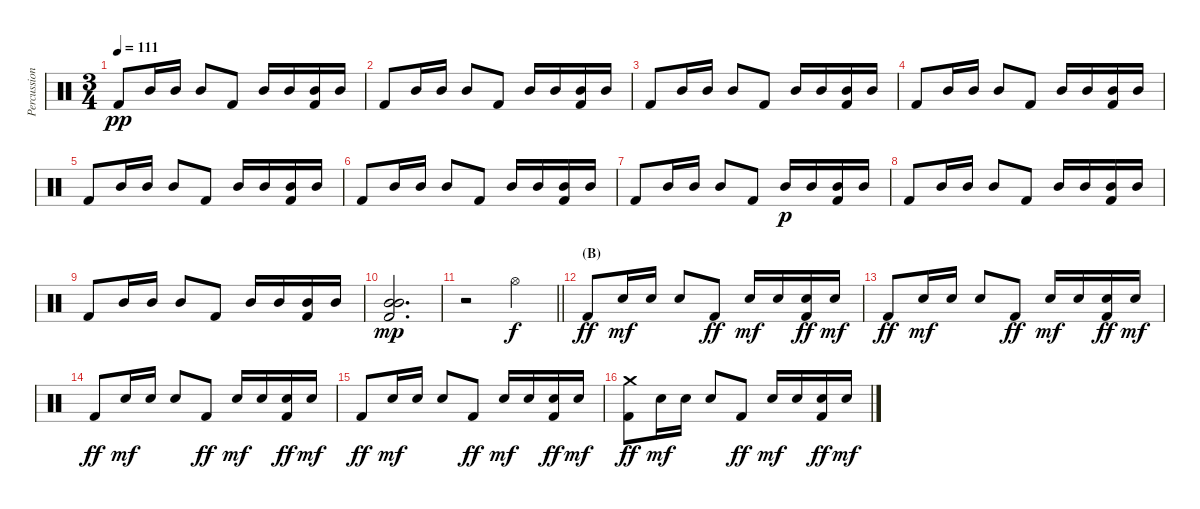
\track ("Percussion" "Percussion") {instrument percussion}
\staff {score}
\articulation defaults
\ts (3 4)
\tempo 111
\clef neutral
\ks c "Kick (hit) 2".8{dy pp} "Mid Tom (hit)".16 "Mid Tom (hit)".16 "Mid Tom (hit)".8 "Kick (hit) 2".8 "Mid Tom (hit)".16 "Mid Tom (hit)".16
("Mid Tom (hit)" "Kick (hit) 2").16 "Mid Tom (hit)".16 |
"Kick (hit) 2".8 "Mid Tom (hit)".16 "Mid Tom (hit)".16 "Mid Tom (hit)".8 "Kick (hit) 2".8 "Mid Tom (hit)".16 "Mid Tom (hit)".16 ("Mid Tom (hit)" "Kick (hit) 2").16 "Mid Tom (hit)".16 |
"Kick (hit) 2".8 "Mid Tom (hit)".16{volume 13} "Mid Tom (hit)".16 "Mid Tom (hit)".8 "Kick (hit) 2".8 "Mid Tom (hit)".16 "Mid Tom (hit)".16 ("Mid Tom (hit)" "Kick (hit) 2").16 "Mid Tom (hit)".16 |
"Kick (hit) 2".8 "Mid Tom (hit)".16 "Mid Tom (hit)".16 "Mid Tom (hit)".8 "Kick (hit) 2".8 "Mid Tom (hit)".16 "Mid Tom (hit)".16 ("Mid Tom (hit)" "Kick (hit) 2").16 "Mid Tom (hit)".16 |
"Kick (hit) 2".8 "Mid Tom (hit)".16 "Mid Tom (hit)".16 "Mid Tom (hit)".8 "Kick (hit) 2".8 "Mid Tom (hit)".16 "Mid Tom (hit)".16 ("Mid Tom (hit)" "Kick (hit) 2").16 "Mid Tom (hit)".16 |
"Kick (hit) 2".8 "Mid Tom (hit)".16 "Mid Tom (hit)".16 "Mid Tom (hit)".8 "Kick (hit) 2".8 "Mid Tom (hit)".16 "Mid Tom (hit)".16 ("Mid Tom (hit)" "Kick (hit) 2").16 "Mid Tom (hit)".16 |
"Kick (hit) 2".8 "Mid Tom (hit)".16 "Mid Tom (hit)".16 "Mid Tom (hit)".8 "Kick (hit) 2".8 "Mid Tom (hit)".16{dy p} "Mid Tom (hit)".16 ("Mid Tom (hit)" "Kick (hit) 2").16 "Mid Tom (hit)".16 |
"Kick (hit) 2".8 "Mid Tom (hit)".16 "Mid Tom (hit)".16 "Mid Tom (hit)".8 "Kick (hit) 2".8 "Mid Tom (hit)".16 "Mid Tom (hit)".16 ("Mid Tom (hit)" "Kick (hit) 2").16 "Mid Tom (hit)".16 |
"Kick (hit) 2".8 "Mid Tom (hit)".16 "Mid Tom (hit)".16 "Mid Tom (hit)".8 "Kick (hit) 2".8 "Mid Tom (hit)".16 "Mid Tom (hit)".16 ("Mid Tom (hit)" "Kick (hit) 2").16 "Mid Tom (hit)".16 |
("Mid Tom (hit)" "Mid Tom (hit)" "Kick (hit) 2").2{d dy mp} |
\barLineRight lightlight
r.2 "Hi-Hat (open)".4{dy f} |
\section ("" "(B)")
"Kick (hit) 2".8{dy ff} "Snare (hit) 2".16{dy mf} "Snare (hit) 2".16 "Snare (hit) 2".8 "Kick (hit) 2".8{dy ff} "Snare (hit) 2".16{dy mf} "Snare (hit) 2".16 ("Snare (hit) 2" "Kick (hit) 2").16{dy ff} "Snare (hit) 2".16{dy mf} |
"Kick (hit) 2".8{dy ff} "Snare (hit) 2".16{dy mf} "Snare (hit) 2".16 "Snare (hit) 2".8 "Kick (hit) 2".8{dy ff} "Snare (hit) 2".16{dy mf} "Snare (hit) 2".16 ("Snare (hit) 2" "Kick (hit) 2").16{dy ff} "Snare (hit) 2".16{dy mf} |
"Kick (hit) 2".8{dy ff} "Snare (hit) 2".16{dy mf} "Snare (hit) 2".16 "Snare (hit) 2".8 "Kick (hit) 2".8{dy ff} "Snare (hit) 2".16{dy mf} "Snare (hit) 2".16 ("Snare (hit) 2" "Kick (hit) 2").16{dy ff} "Snare (hit) 2".16{dy mf} |
"Kick (hit) 2".8{dy ff} "Snare (hit) 2".16{dy mf} "Snare (hit) 2".16 "Snare (hit) 2".8 "Kick (hit) 2".8{dy ff} "Snare (hit) 2".16{dy mf} "Snare (hit) 2".16 ("Snare (hit) 2" "Kick (hit) 2").16{dy ff} "Snare (hit) 2".16{dy mf} |
("Crash medium (hit)" "Kick (hit) 2").8{dy ff} "Snare (hit) 2".16{dy mf} "Snare (hit) 2".16 "Snare (hit) 2".8 "Kick (hit) 2".8{dy ff} "Snare (hit) 2".16{dy mf} "Snare (hit) 2".16 ("Snare (hit) 2" "Kick (hit) 2").16{dy ff} "Snare (hit) 2".16{dy mf}
